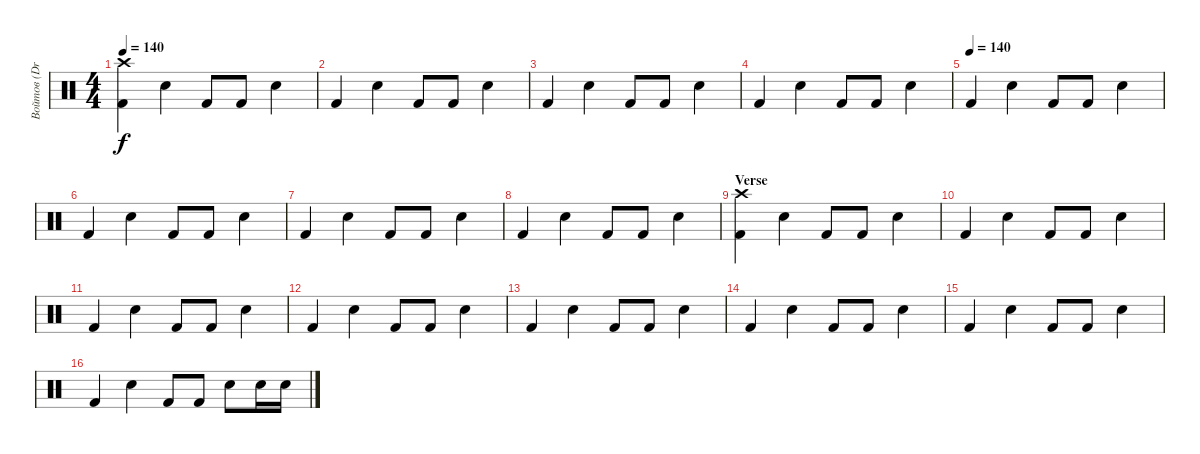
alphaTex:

\track ("Войтов (Drums)" "Войтов (Dr") {instrument percussion}
\staff {score}
\articulation defaults
\ts (4 4)
\tempo 140
\clef neutral
\ks c
("Kick (hit) 2" "Crash high (hit)").4{dy f} "Electric Snare (hit)".4 "Kick (hit) 2".8 "Kick (hit) 2".8 "Electric Snare (hit)".4 |
"Kick (hit) 2".4 "Electric Snare (hit)".4 "Kick (hit) 2".8 "Kick (hit) 2".8 "Electric Snare (hit)".4 |
"Kick (hit) 2".4 "Electric Snare (hit)".4 "Kick (hit) 2".8 "Kick (hit) 2".8 "Electric Snare (hit)".4 |
"Kick (hit) 2".4 "Electric Snare (hit)".4 "Kick (hit) 2".8 "Kick (hit) 2".8 "Electric Snare (hit)".4 |
\tempo (140)
"Kick (hit) 2".4 "Electric Snare (hit)".4 "Kick (hit) 2".8 "Kick (hit) 2".8 "Electric Snare (hit)".4 |
"Kick (hit) 2".4 "Electric Snare (hit)".4 "Kick (hit) 2".8 "Kick (hit) 2".8 "Electric Snare (hit)".4 |
"Kick (hit) 2".4 "Electric Snare (hit)".4 "Kick (hit) 2".8 "Kick (hit) 2".8 "Electric Snare (hit)".4 |
"Kick (hit) 2".4 "Electric Snare (hit)".4 "Kick (hit) 2".8 "Kick (hit) 2".8 "Electric Snare (hit)".4 |
\section ("" "Verse")
("Kick (hit) 2" "Crash high (hit)").4 "Electric Snare (hit)".4 "Kick (hit) 2".8 "Kick (hit) 2".8 "Electric Snare (hit)".4 |
"Kick (hit) 2".4 "Electric Snare (hit)".4 "Kick (hit) 2".8 "Kick (hit) 2".8 "Electric Snare (hit)".4 |
"Kick (hit) 2".4 "Electric Snare (hit)".4 "Kick (hit) 2".8 "Kick (hit) 2".8 "Electric Snare (hit)".4 |
"Kick (hit) 2".4 "Electric Snare (hit)".4 "Kick (hit) 2".8 "Kick (hit) 2".8 "Electric Snare (hit)".4 |
"Kick (hit) 2".4 "Electric Snare (hit)".4 "Kick (hit) 2".8 "Kick (hit) 2".8 "Electric Snare (hit)".4 |
"Kick (hit) 2".4 "Electric Snare (hit)".4 "Kick (hit) 2".8 "Kick (hit) 2".8 "Electric Snare (hit)".4 |
"Kick (hit) 2".4 "Electric Snare (hit)".4 "Kick (hit) 2".8 "Kick (hit) 2".8 "Electric Snare (hit)".4 |
"Kick (hit) 2".4 "Electric Snare (hit)".4 "Kick (hit) 2".8 "Kick (hit) 2".8 "Electric Snare (hit)".8 "Electric Snare (hit)".16 "Electric Snare (hit)".16
